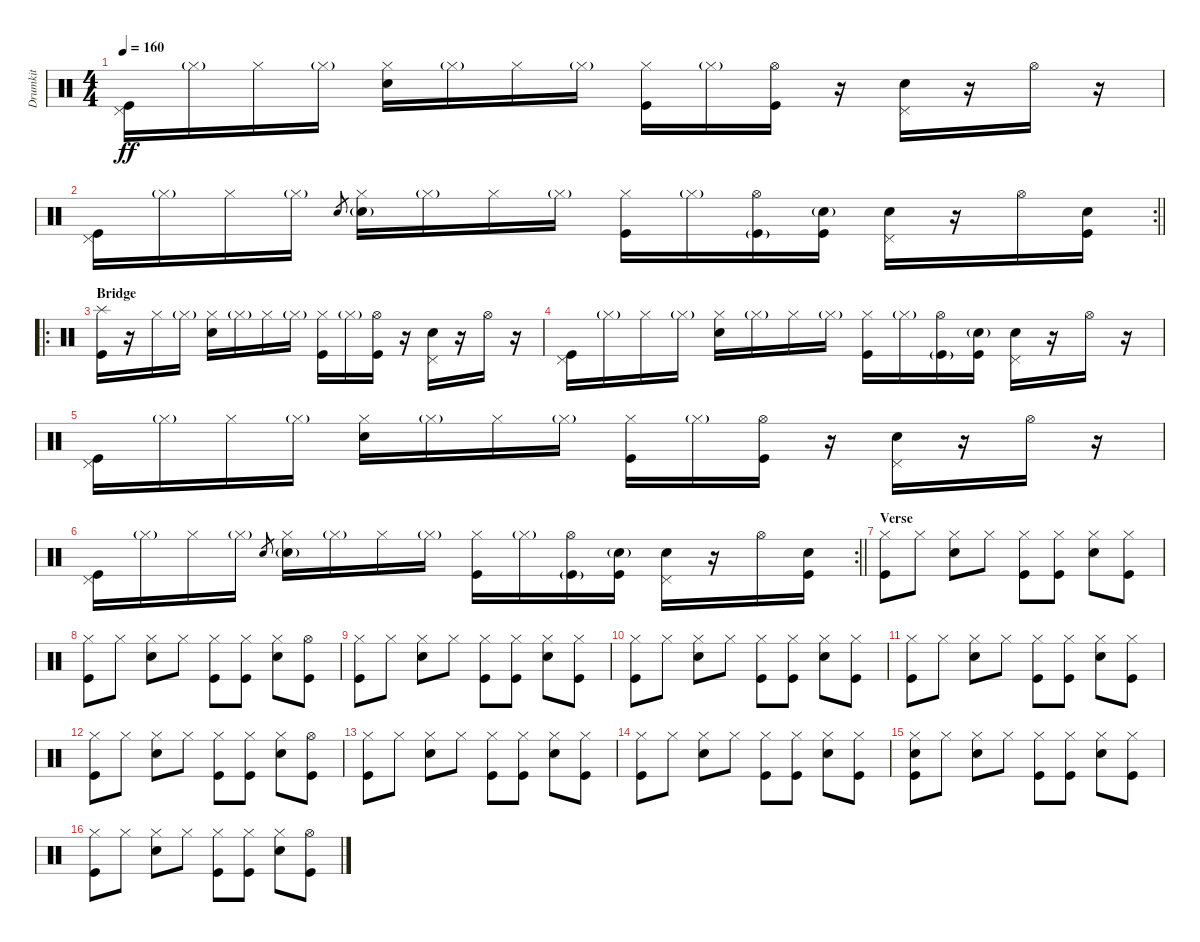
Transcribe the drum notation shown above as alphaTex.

\track ("Drumkit" "Drumkit") {instrument percussion}
\staff {score}
\articulation defaults
\ts (4 4)
\tempo 160
\clef neutral
\ks c
("Pedal Hi-Hat (hit)" "Kick (hit)").16{dy ff} "Hi-Hat (closed)"{g}.16 "Hi-Hat (closed)".16 "Hi-Hat (closed)"{g}.16 ("Hi-Hat (closed)" "Snare (hit) 2").16 "Hi-Hat (closed)"{g}.16 "Hi-Hat (closed)".16 "Hi-Hat (closed)"{g}.16 ("Hi-Hat (closed)" "Kick (hit)").16 "Hi-Hat (closed)"{g}.16 ("Hi-Hat (open)" "Kick (hit)").16 r.16 ("Pedal Hi-Hat (hit)" "Snare (hit) 2").16 r.16 "Hi-Hat (open)".16 r.16 |
\rc 2
\barLineRight lightlight
("Pedal Hi-Hat (hit)" "Kick (hit)").16 "Hi-Hat (closed)"{g}.16 "Hi-Hat (closed)".16 "Hi-Hat (closed)"{g}.16 "Snare (hit)".8{gr} ("Hi-Hat (closed)" "Snare (hit) 2"{g}).16 "Hi-Hat (closed)"{g}.16 "Hi-Hat (closed)".16 "Hi-Hat (closed)"{g}.16 ("Hi-Hat (closed)" "Kick (hit)").16 "Hi-Hat (closed)"{g}.16 ("Hi-Hat (open)" "Kick (hit)"{g}).16 ("Snare (hit) 2"{g} "Kick (hit)").16 ("Pedal Hi-Hat (hit)" "Snare (hit) 2").16 r.16 "Hi-Hat (open)".16 ("Snare (hit) 2" "Kick (hit)").16 |
\ro
\section ("" "Bridge")
("Splash (hit)" "Kick (hit)").16 r.16 "Hi-Hat (closed)".16 "Hi-Hat (closed)"{g}.16 ("Hi-Hat (closed)" "Snare (hit) 2").16 "Hi-Hat (closed)"{g}.16 "Hi-Hat (closed)".16 "Hi-Hat (closed)"{g}.16 ("Hi-Hat (closed)" "Kick (hit)").16 "Hi-Hat (closed)"{g}.16 ("Hi-Hat (open)" "Kick (hit)").16 r.16 ("Pedal Hi-Hat (hit)" "Snare (hit) 2").16 r.16 "Hi-Hat (open)".16 r.16 |
("Pedal Hi-Hat (hit)" "Kick (hit)").16 "Hi-Hat (closed)"{g}.16 "Hi-Hat (closed)".16 "Hi-Hat (closed)"{g}.16 ("Hi-Hat (closed)" "Snare (hit) 2").16 "Hi-Hat (closed)"{g}.16 "Hi-Hat (closed)".16 "Hi-Hat (closed)"{g}.16 ("Hi-Hat (closed)" "Kick (hit)").16 "Hi-Hat (closed)"{g}.16 ("Hi-Hat (open)" "Kick (hit)"{g}).16 ("Snare (hit) 2"{g} "Kick (hit)").16 ("Pedal Hi-Hat (hit)" "Snare (hit) 2").16 r.16 "Hi-Hat (open)".16 r.16 |
("Pedal Hi-Hat (hit)" "Kick (hit)").16 "Hi-Hat (closed)"{g}.16 "Hi-Hat (closed)".16 "Hi-Hat (closed)"{g}.16 ("Hi-Hat (closed)" "Snare (hit) 2").16 "Hi-Hat (closed)"{g}.16 "Hi-Hat (closed)".16 "Hi-Hat (closed)"{g}.16 ("Hi-Hat (closed)" "Kick (hit)").16 "Hi-Hat (closed)"{g}.16 ("Hi-Hat (open)" "Kick (hit)").16 r.16 ("Pedal Hi-Hat (hit)" "Snare (hit) 2").16 r.16 "Hi-Hat (open)".16 r.16 |
\rc 2
\barLineRight lightlight
("Pedal Hi-Hat (hit)" "Kick (hit)").16 "Hi-Hat (closed)"{g}.16 "Hi-Hat (closed)".16 "Hi-Hat (closed)"{g}.16 "Snare (hit)".8{gr} ("Hi-Hat (closed)" "Snare (hit) 2"{g}).16 "Hi-Hat (closed)"{g}.16 "Hi-Hat (closed)".16 "Hi-Hat (closed)"{g}.16 ("Hi-Hat (closed)" "Kick (hit)").16 "Hi-Hat (closed)"{g}.16 ("Hi-Hat (open)" "Kick (hit)"{g}).16 ("Snare (hit) 2"{g} "Kick (hit)").16 ("Pedal Hi-Hat (hit)" "Snare (hit) 2").16 r.16 "Hi-Hat (open)".16 ("Snare (hit) 2" "Kick (hit)").16 |
\section ("" "Verse")
("Hi-Hat (closed)" "Kick (hit)").8 "Hi-Hat (closed)".8 ("Hi-Hat (closed)" "Snare (hit) 2").8 "Hi-Hat (closed)".8 ("Hi-Hat (closed)" "Kick (hit)").8 ("Hi-Hat (closed)" "Kick (hit)").8 ("Hi-Hat (closed)" "Snare (hit) 2").8 ("Hi-Hat (closed)" "Kick (hit)").8 |
("Hi-Hat (closed)" "Kick (hit)").8 "Hi-Hat (closed)".8 ("Hi-Hat (closed)" "Snare (hit) 2").8 "Hi-Hat (closed)".8 ("Hi-Hat (closed)" "Kick (hit)").8 ("Hi-Hat (closed)" "Kick (hit)").8 ("Hi-Hat (closed)" "Snare (hit) 2").8 ("Hi-Hat (open)" "Kick (hit)").8 |
("Hi-Hat (closed)" "Kick (hit)").8 "Hi-Hat (closed)".8 ("Hi-Hat (closed)" "Snare (hit) 2").8 "Hi-Hat (closed)".8 ("Hi-Hat (closed)" "Kick (hit)").8 ("Hi-Hat (closed)" "Kick (hit)").8 ("Hi-Hat (closed)" "Snare (hit) 2").8 ("Hi-Hat (closed)" "Kick (hit)").8 |
("Hi-Hat (closed)" "Kick (hit)").8 "Hi-Hat (closed)".8 ("Hi-Hat (closed)" "Snare (hit) 2").8 "Hi-Hat (closed)".8 ("Hi-Hat (closed)" "Kick (hit)").8 ("Hi-Hat (closed)" "Kick (hit)").8 ("Hi-Hat (closed)" "Snare (hit) 2").8 ("Hi-Hat (closed)" "Kick (hit)").8 |
("Hi-Hat (closed)" "Kick (hit)").8 "Hi-Hat (closed)".8 ("Hi-Hat (closed)" "Snare (hit) 2").8 "Hi-Hat (closed)".8 ("Hi-Hat (closed)" "Kick (hit)").8 ("Hi-Hat (closed)" "Kick (hit)").8 ("Hi-Hat (closed)" "Snare (hit) 2").8 ("Hi-Hat (closed)" "Kick (hit)").8 |
("Hi-Hat (closed)" "Kick (hit)").8 "Hi-Hat (closed)".8 ("Hi-Hat (closed)" "Snare (hit) 2").8 "Hi-Hat (closed)".8 ("Hi-Hat (closed)" "Kick (hit)").8 ("Hi-Hat (closed)" "Kick (hit)").8 ("Hi-Hat (closed)" "Snare (hit) 2").8 ("Hi-Hat (open)" "Kick (hit)").8 |
("Hi-Hat (closed)" "Kick (hit)").8 "Hi-Hat (closed)".8 ("Hi-Hat (closed)" "Snare (hit) 2").8 "Hi-Hat (closed)".8 ("Hi-Hat (closed)" "Kick (hit)").8 ("Hi-Hat (closed)" "Kick (hit)").8 ("Hi-Hat (closed)" "Snare (hit) 2").8 ("Hi-Hat (closed)" "Kick (hit)").8 |
("Hi-Hat (closed)" "Kick (hit)").8 "Hi-Hat (closed)".8 ("Hi-Hat (closed)" "Snare (hit) 2").8 "Hi-Hat (closed)".8 ("Hi-Hat (closed)" "Kick (hit)").8 ("Hi-Hat (closed)" "Kick (hit)").8 ("Hi-Hat (closed)" "Snare (hit) 2").8 ("Hi-Hat (closed)" "Kick (hit)").8 |
("Hi-Hat (closed)" "Snare (hit) 2" "Kick (hit)").8 "Hi-Hat (closed)".8 ("Hi-Hat (closed)" "Snare (hit) 2").8 "Hi-Hat (closed)".8 ("Hi-Hat (closed)" "Kick (hit)").8 ("Hi-Hat (closed)" "Kick (hit)").8 ("Hi-Hat (closed)" "Snare (hit) 2").8 ("Hi-Hat (closed)" "Kick (hit)").8 |
("Hi-Hat (closed)" "Kick (hit)").8 "Hi-Hat (closed)".8 ("Hi-Hat (closed)" "Snare (hit) 2").8 "Hi-Hat (closed)".8 ("Hi-Hat (closed)" "Kick (hit)").8 ("Hi-Hat (closed)" "Kick (hit)").8 ("Hi-Hat (closed)" "Snare (hit) 2").8 ("Hi-Hat (open)" "Kick (hit)").8
